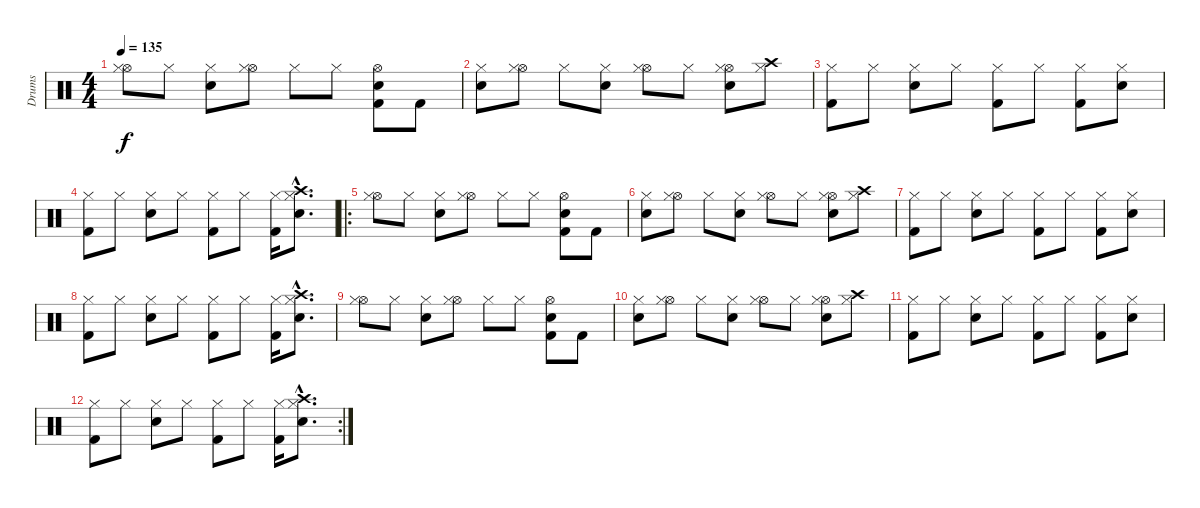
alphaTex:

\track ("Drums" "Drums") {instrument percussion}
\staff {score}
\articulation defaults
\ts (4 4)
\tempo 135
\clef neutral
\ks c
("Hi-Hat (open)" "Hi-Hat (closed)").8{dy f} "Hi-Hat (closed)".8 ("Hi-Hat (closed)" "Snare (hit) 2").8 ("Hi-Hat (open)" "Hi-Hat (closed)").8 "Hi-Hat (closed)".8 "Hi-Hat (closed)".8 ("Hi-Hat (open)" "Kick (hit) 2" "Snare (hit) 2").8 "Kick (hit) 2".8 |
("Hi-Hat (closed)" "Snare (hit) 2").8 ("Hi-Hat (open)" "Hi-Hat (closed)").8 "Hi-Hat (closed)".8 ("Hi-Hat (closed)" "Snare (hit) 2").8 ("Hi-Hat (open)" "Hi-Hat (closed)").8 "Hi-Hat (closed)".8 ("Hi-Hat (open)" "Hi-Hat (closed)" "Snare (hit) 2").8 ("Hi-Hat (closed)" "Crash high (hit)").8 |
("Kick (hit) 2" "Hi-Hat (closed)").8 "Hi-Hat (closed)".8 ("Snare (hit) 2" "Hi-Hat (closed)").8 "Hi-Hat (closed)".8 ("Kick (hit) 2" "Hi-Hat (closed)").8 "Hi-Hat (closed)".8 ("Kick (hit) 2" "Hi-Hat (closed)").8 ("Snare (hit) 2" "Hi-Hat (closed)").8 |
("Kick (hit) 2" "Hi-Hat (closed)").8 "Hi-Hat (closed)".8 ("Snare (hit) 2" "Hi-Hat (closed)").8 "Hi-Hat (closed)".8 ("Kick (hit) 2" "Hi-Hat (closed)").8 "Hi-Hat (closed)".8 ("Kick (hit) 2" "Hi-Hat (closed)").16 ("Snare (hit) 2"{hac} "Hi-Hat (closed)"{hac} "Crash high (hit)"{hac}).8{d} |
\ro
("Hi-Hat (open)" "Hi-Hat (closed)").8{volume 16} "Hi-Hat (closed)".8 ("Hi-Hat (closed)" "Snare (hit) 2").8 ("Hi-Hat (open)" "Hi-Hat (closed)").8 "Hi-Hat (closed)".8 "Hi-Hat (closed)".8 ("Hi-Hat (open)" "Kick (hit) 2" "Snare (hit) 2").8 "Kick (hit) 2".8 |
("Hi-Hat (closed)" "Snare (hit) 2").8 ("Hi-Hat (open)" "Hi-Hat (closed)").8 "Hi-Hat (closed)".8 ("Hi-Hat (closed)" "Snare (hit) 2").8 ("Hi-Hat (open)" "Hi-Hat (closed)").8 "Hi-Hat (closed)".8 ("Hi-Hat (open)" "Hi-Hat (closed)" "Snare (hit) 2").8 ("Hi-Hat (closed)" "Crash high (hit)").8 |
("Kick (hit) 2" "Hi-Hat (closed)").8 "Hi-Hat (closed)".8 ("Snare (hit) 2" "Hi-Hat (closed)").8 "Hi-Hat (closed)".8 ("Kick (hit) 2" "Hi-Hat (closed)").8 "Hi-Hat (closed)".8 ("Kick (hit) 2" "Hi-Hat (closed)").8 ("Snare (hit) 2" "Hi-Hat (closed)").8 |
("Kick (hit) 2" "Hi-Hat (closed)").8 "Hi-Hat (closed)".8 ("Snare (hit) 2" "Hi-Hat (closed)").8 "Hi-Hat (closed)".8 ("Kick (hit) 2" "Hi-Hat (closed)").8 "Hi-Hat (closed)".8 ("Kick (hit) 2" "Hi-Hat (closed)").16 ("Snare (hit) 2"{hac} "Hi-Hat (closed)"{hac} "Crash high (hit)"{hac}).8{d} |
("Hi-Hat (open)" "Hi-Hat (closed)").8 "Hi-Hat (closed)".8 ("Hi-Hat (closed)" "Snare (hit) 2").8 ("Hi-Hat (open)" "Hi-Hat (closed)").8 "Hi-Hat (closed)".8 "Hi-Hat (closed)".8 ("Hi-Hat (open)" "Kick (hit) 2" "Snare (hit) 2").8 "Kick (hit) 2".8 |
("Hi-Hat (closed)" "Snare (hit) 2").8 ("Hi-Hat (open)" "Hi-Hat (closed)").8 "Hi-Hat (closed)".8 ("Hi-Hat (closed)" "Snare (hit) 2").8 ("Hi-Hat (open)" "Hi-Hat (closed)").8 "Hi-Hat (closed)".8 ("Hi-Hat (open)" "Hi-Hat (closed)" "Snare (hit) 2").8 ("Hi-Hat (closed)" "Crash high (hit)").8 |
("Kick (hit) 2" "Hi-Hat (closed)").8 "Hi-Hat (closed)".8 ("Snare (hit) 2" "Hi-Hat (closed)").8 "Hi-Hat (closed)".8 ("Kick (hit) 2" "Hi-Hat (closed)").8 "Hi-Hat (closed)".8 ("Kick (hit) 2" "Hi-Hat (closed)").8 ("Snare (hit) 2" "Hi-Hat (closed)").8 |
\rc 2
("Kick (hit) 2" "Hi-Hat (closed)").8 "Hi-Hat (closed)".8 ("Snare (hit) 2" "Hi-Hat (closed)").8 "Hi-Hat (closed)".8 ("Kick (hit) 2" "Hi-Hat (closed)").8 "Hi-Hat (closed)".8 ("Kick (hit) 2" "Hi-Hat (closed)").16 ("Snare (hit) 2"{hac} "Hi-Hat (closed)"{hac} "Crash high (hit)"{hac}).8{d}
